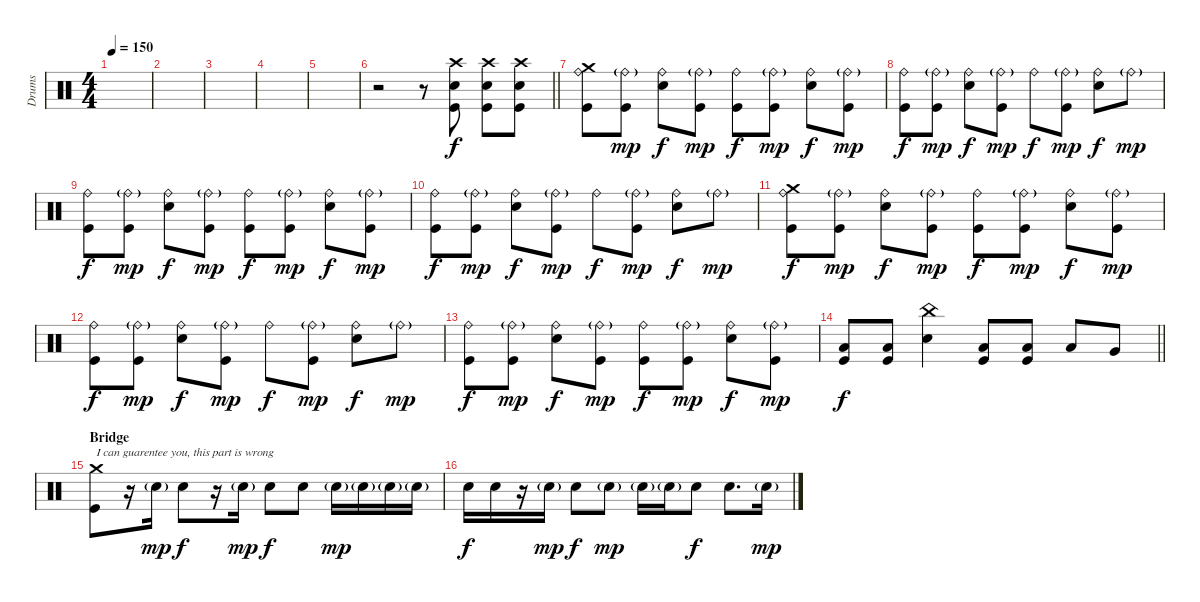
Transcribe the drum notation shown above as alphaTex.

\track ("Drums" "Drums") {instrument percussion}
\staff {score}
\articulation defaults
\ts (4 4)
\tempo 150
\clef neutral
\ks c
|
|
|
|
|
\barLineRight lightlight
r.2 r.8 ("Crash high (hit)" "Electric Snare (hit)" "Kick (hit)").8{volume 13} ("Crash high (hit)" "Electric Snare (hit)" "Kick (hit)").8 ("Crash high (hit)" "Electric Snare (hit)" "Kick (hit)").8 |
("Crash medium (hit)" "Ride (bell)" "Kick (hit)").8 ("Ride (bell)"{g} "Kick (hit)").8{dy mp} ("Ride (bell)" "Electric Snare (hit)").8{dy f} ("Ride (bell)"{g} "Kick (hit)").8{dy mp} ("Ride (bell)" "Kick (hit)").8{dy f} ("Ride (bell)"{g} "Kick (hit)").8{dy mp} ("Ride (bell)" "Electric Snare (hit)").8{dy f} ("Ride (bell)"{g} "Kick (hit)").8{dy mp} |
("Ride (bell)" "Kick (hit)").8{dy f} ("Ride (bell)"{g} "Kick (hit)").8{dy mp} ("Ride (bell)" "Electric Snare (hit)").8{dy f} ("Ride (bell)"{g} "Kick (hit)").8{dy mp} "Ride (bell)".8{dy f} ("Ride (bell)"{g} "Kick (hit)").8{dy mp} ("Ride (bell)" "Electric Snare (hit)").8{dy f} "Ride (bell)"{g}.8{dy mp} |
("Ride (bell)" "Kick (hit)").8{dy f} ("Ride (bell)"{g} "Kick (hit)").8{dy mp} ("Ride (bell)" "Electric Snare (hit)").8{dy f} ("Ride (bell)"{g} "Kick (hit)").8{dy mp} ("Ride (bell)" "Kick (hit)").8{dy f} ("Ride (bell)"{g} "Kick (hit)").8{dy mp} ("Ride (bell)" "Electric Snare (hit)").8{dy f} ("Ride (bell)"{g} "Kick (hit)").8{dy mp} |
("Ride (bell)" "Kick (hit)").8{dy f} ("Ride (bell)"{g} "Kick (hit)").8{dy mp} ("Ride (bell)" "Electric Snare (hit)").8{dy f} ("Ride (bell)"{g} "Kick (hit)").8{dy mp} "Ride (bell)".8{dy f} ("Ride (bell)"{g} "Kick (hit)").8{dy mp} ("Ride (bell)" "Electric Snare (hit)").8{dy f} "Ride (bell)"{g}.8{dy mp} |
("Crash medium (hit)" "Ride (bell)" "Kick (hit)").8{dy f} ("Ride (bell)"{g} "Kick (hit)").8{dy mp} ("Ride (bell)" "Electric Snare (hit)").8{dy f} ("Ride (bell)"{g} "Kick (hit)").8{dy mp} ("Ride (bell)" "Kick (hit)").8{dy f} ("Ride (bell)"{g} "Kick (hit)").8{dy mp} ("Ride (bell)" "Electric Snare (hit)").8{dy f} ("Ride (bell)"{g} "Kick (hit)").8{dy mp} |
("Ride (bell)" "Kick (hit)").8{dy f} ("Ride (bell)"{g} "Kick (hit)").8{dy mp} ("Ride (bell)" "Electric Snare (hit)").8{dy f} ("Ride (bell)"{g} "Kick (hit)").8{dy mp} "Ride (bell)".8{dy f} ("Ride (bell)"{g} "Kick (hit)").8{dy mp} ("Ride (bell)" "Electric Snare (hit)").8{dy f} "Ride (bell)"{g}.8{dy mp} |
("Ride (bell)" "Kick (hit)").8{dy f} ("Ride (bell)"{g} "Kick (hit)").8{dy mp} ("Ride (bell)" "Electric Snare (hit)").8{dy f} ("Ride (bell)"{g} "Kick (hit)").8{dy mp} ("Ride (bell)" "Kick (hit)").8{dy f} ("Ride (bell)"{g} "Kick (hit)").8{dy mp} ("Ride (bell)" "Electric Snare (hit)").8{dy f} ("Ride (bell)"{g} "Kick (hit)").8{dy mp} |
\barLineRight lightlight
("Low Floor Tom (hit)" "Kick (hit)").8{dy f} ("Low Floor Tom (hit)" "Kick (hit)").8 ("China (hit)" "Electric Snare (hit)").4 ("Low Floor Tom (hit)" "Kick (hit)").8 ("Low Floor Tom (hit)" "Kick (hit)").8 "Low Tom (hit)".8 "Very Low Tom (hit)".8 |
\section ("" "Bridge")
("Crash medium (hit)" "Kick (hit)").8{txt "I can guarentee you, this part is wrong"} r.16{volume 9} "Snare (hit) 2"{g}.16{dy mp} "Snare (hit) 2".8{dy f} r.16 "Snare (hit) 2"{g}.16{dy mp} "Snare (hit) 2".8{dy f} "Snare (hit) 2".8 "Snare (hit) 2"{g}.16{dy mp} "Snare (hit) 2"{g}.16 "Snare (hit) 2"{g}.16 "Snare (hit) 2"{g}.16 |
"Snare (hit) 2".16{dy f} "Snare (hit) 2".16 r.16 "Snare (hit) 2"{g}.16{dy mp} "Snare (hit) 2".8{dy f} "Snare (hit) 2"{g}.8{dy mp} "Snare (hit) 2"{g}.16 "Snare (hit) 2"{g}.16 "Snare (hit) 2".8{dy f} "Snare (hit) 2".8{d} "Snare (hit) 2"{g}.16{dy mp}
